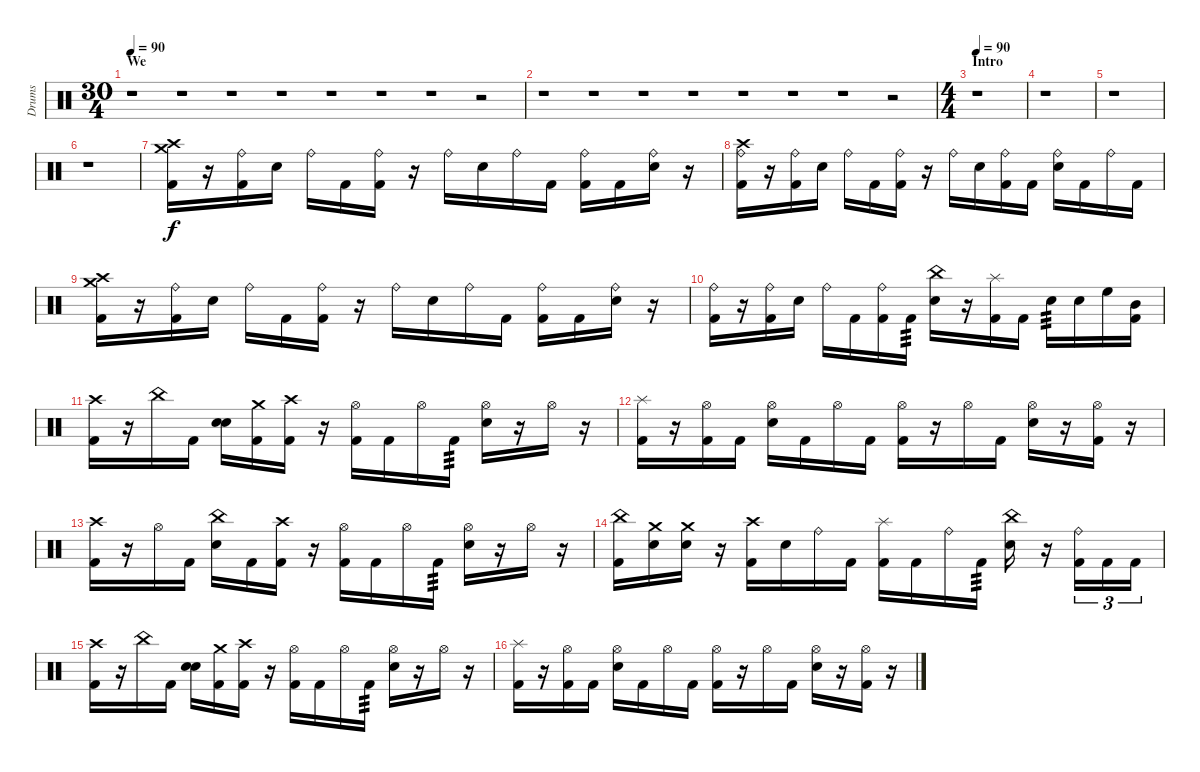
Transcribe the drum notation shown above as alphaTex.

\track ("Drums" "Drums") {instrument percussion}
\staff {score}
\articulation defaults
\ts (30 4)
\section ("" "We")
\tempo 90
\tempo 60
\tempo 90
\clef neutral
\ks c
r.1{dy f} r.1 r.1 r.1 r.1 r.1 r.1 r.2 |
r.1 r.1 r.1 r.1 r.1 r.1 r.1 r.2 |
\ts (4 4)
\section ("" "Intro")
\tempo 90
r.1 |
r.1 |
r.1 |
r.1 |
("Crash high (hit)" "Crash medium (hit)" "Kick (hit) 2").16 r.16 ("Ride (bell)" "Kick (hit) 2").16 "Snare (hit) 2".16 "Ride (bell)".16 "Kick (hit) 2".16 ("Ride (bell)" "Kick (hit) 2").16 r.16 "Ride (bell)".16 "Snare (hit) 2".16 "Ride (bell)".16 "Kick (hit) 2".16 ("Ride (bell)" "Kick (hit) 2").16 "Kick (hit) 2".16 ("Ride (bell)" "Snare (hit) 2").16 r.16 |
("Ride (bell)" "Crash high (hit)" "Kick (hit) 2").16 r.16 ("Ride (bell)" "Kick (hit) 2").16 "Snare (hit) 2".16 "Ride (bell)".16 "Kick (hit) 2".16 ("Ride (bell)" "Kick (hit) 2").16 r.16 "Ride (bell)".16 "Snare (hit) 2".16 ("Ride (bell)" "Kick (hit) 2").16 "Kick (hit) 2".16 ("Ride (bell)" "Snare (hit) 2").16 "Kick (hit) 2".16 "Ride (bell)".16 "Kick (hit) 2".16 |
("Crash high (hit)" "Crash medium (hit)" "Kick (hit) 2").16 r.16 ("Ride (bell)" "Kick (hit) 2").16 "Snare (hit) 2".16 "Ride (bell)".16 "Kick (hit) 2".16 ("Ride (bell)" "Kick (hit) 2").16 r.16 "Ride (bell)".16 "Snare (hit) 2".16 "Ride (bell)".16 "Kick (hit) 2".16 ("Ride (bell)" "Kick (hit) 2").16 "Kick (hit) 2".16 ("Ride (bell)" "Snare (hit) 2").16 r.16 |
("Ride (bell)" "Kick (hit) 2").16 r.16 ("Ride (bell)" "Kick (hit) 2").16 "Snare (hit) 2".16 "Ride (bell)".16 "Kick (hit) 2".16 ("Ride (bell)" "Kick (hit) 2").16 "Kick (hit) 2".16{tp 3} ("China (hit)" "Snare (hit) 2").16 r.16 ("Splash (hit)" "Kick (hit) 2").16 "Kick (hit) 2".16 "Snare (hit) 2".16{tp 3} "Snare (hit) 2".16 "High Floor Tom (hit)".16 ("Mid Tom (hit)" "Kick (hit) 2").16 |
("Crash high (hit)" "Kick (hit) 2").16 r.16 "China (hit)".16 "Kick (hit) 2".16 ("Snare (hit) 2" "Snare (hit) 2").16 ("Crash medium (hit)" "Kick (hit) 2").16 ("Crash high (hit)" "Kick (hit) 2").16 r.16 ("Hi-Hat (open)" "Kick (hit) 2").16 "Kick (hit) 2".16 "Hi-Hat (open)".16 "Kick (hit) 2".16{tp 3} ("Hi-Hat (open)" "Snare (hit) 2").16 r.16 "Hi-Hat (open)".16 r.16 |
("Splash (hit)" "Kick (hit) 2").16 r.16 ("Hi-Hat (open)" "Kick (hit) 2").16 "Kick (hit) 2".16 ("Hi-Hat (open)" "Snare (hit) 2").16 "Kick (hit) 2".16 "Hi-Hat (open)".16 "Kick (hit) 2".16 ("Hi-Hat (open)" "Kick (hit) 2").16 r.16 "Hi-Hat (open)".16 "Kick (hit) 2".16 ("Hi-Hat (open)" "Snare (hit) 2").16 r.16 ("Hi-Hat (open)" "Kick (hit) 2").16 r.16 |
("Crash high (hit)" "Kick (hit) 2").16 r.16 "Hi-Hat (open)".16 "Kick (hit) 2".16 ("China (hit)" "Snare (hit) 2").16 "Kick (hit) 2".16 ("Crash high (hit)" "Kick (hit) 2").16 r.16 ("Hi-Hat (open)" "Kick (hit) 2").16 "Kick (hit) 2".16 "Hi-Hat (open)".16 "Kick (hit) 2".16{tp 3} ("Hi-Hat (open)" "Snare (hit) 2").16 r.16 "Hi-Hat (open)".16 r.16 |
("China (hit)" "Kick (hit) 2").16 ("Crash medium (hit)" "Snare (hit) 2").16 ("Crash medium (hit)" "Snare (hit) 2").16 r.16 ("Crash high (hit)" "Kick (hit) 2").16 "Snare (hit) 2".16 "Ride (bell)".16 "Kick (hit) 2".16 ("Splash (hit)" "Kick (hit) 2").16 "Kick (hit) 2".16 "Ride (bell)".16 "Kick (hit) 2".16{tp 3} ("China (hit)" "Snare (hit) 2").16 r.16 ("Ride (bell)" "Kick (hit) 2").16{tu (3 2)} "Kick (hit) 2".16{tu (3 2)} "Kick (hit) 2".16{tu (3 2)} |
("Crash high (hit)" "Kick (hit) 2").16 r.16 "China (hit)".16 "Kick (hit) 2".16 ("Snare (hit) 2" "Snare (hit) 2").16 ("Crash medium (hit)" "Kick (hit) 2").16 ("Crash high (hit)" "Kick (hit) 2").16 r.16 ("Hi-Hat (open)" "Kick (hit) 2").16 "Kick (hit) 2".16 "Hi-Hat (open)".16 "Kick (hit) 2".16{tp 3} ("Hi-Hat (open)" "Snare (hit) 2").16 r.16 "Hi-Hat (open)".16 r.16 |
("Splash (hit)" "Kick (hit) 2").16 r.16 ("Hi-Hat (open)" "Kick (hit) 2").16 "Kick (hit) 2".16 ("Hi-Hat (open)" "Snare (hit) 2").16 "Kick (hit) 2".16 "Hi-Hat (open)".16 "Kick (hit) 2".16 ("Hi-Hat (open)" "Kick (hit) 2").16 r.16 "Hi-Hat (open)".16 "Kick (hit) 2".16 ("Hi-Hat (open)" "Snare (hit) 2").16 r.16 ("Hi-Hat (open)" "Kick (hit) 2").16 r.16
